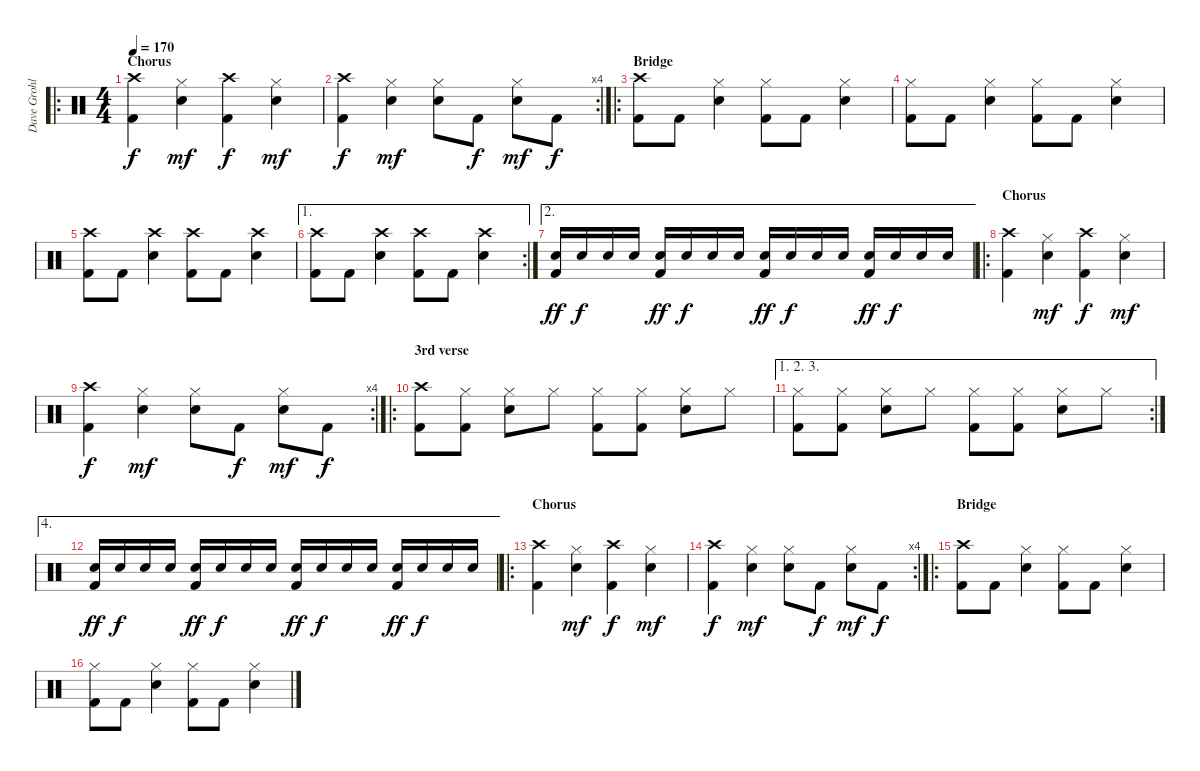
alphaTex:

\track ("Dave Grohl" "Dave Grohl") {instrument percussion}
\staff {score}
\articulation defaults
\ro
\ts (4 4)
\section ("" "Chorus")
\tempo 170
\clef neutral
\ks c
("Crash high (hit)" "Kick (hit) 2").4{dy f volume 13} ("Hi-Hat (closed)" "Electric Snare (hit)").4{dy mf} ("Crash high (hit)" "Kick (hit) 2").4{dy f} ("Hi-Hat (closed)" "Electric Snare (hit)").4{dy mf} |
\rc 4
("Crash high (hit)" "Kick (hit) 2").4{dy f} ("Hi-Hat (closed)" "Electric Snare (hit)").4{dy mf} ("Hi-Hat (closed)" "Electric Snare (hit)").8 "Kick (hit) 2".8{dy f} ("Hi-Hat (closed)" "Electric Snare (hit)").8{dy mf} "Kick (hit) 2".8{dy f} |
\ro
\section ("" "Bridge")
("Crash high (hit)" "Kick (hit) 2").8 "Kick (hit) 2".8 ("Hi-Hat (closed)" "Electric Snare (hit)").4 ("Hi-Hat (closed)" "Kick (hit) 2").8 "Kick (hit) 2".8 ("Hi-Hat (closed)" "Electric Snare (hit)").4 |
("Hi-Hat (closed)" "Kick (hit) 2").8 "Kick (hit) 2".8 ("Hi-Hat (closed)" "Electric Snare (hit)").4 ("Hi-Hat (closed)" "Kick (hit) 2").8 "Kick (hit) 2".8 ("Hi-Hat (closed)" "Electric Snare (hit)").4 |
("Crash high (hit)" "Kick (hit) 2").8 "Kick (hit) 2".8 ("Crash high (hit)" "Electric Snare (hit)").4 ("Crash high (hit)" "Kick (hit) 2").8 "Kick (hit) 2".8 ("Crash high (hit)" "Electric Snare (hit)").4 |
\ae 1
\rc 2
("Crash high (hit)" "Kick (hit) 2").8 "Kick (hit) 2".8 ("Crash high (hit)" "Electric Snare (hit)").4 ("Crash high (hit)" "Kick (hit) 2").8 "Kick (hit) 2".8 ("Crash high (hit)" "Electric Snare (hit)").4 |
\ae 2
("Electric Snare (hit)" "Kick (hit) 2").16{dy ff} "Electric Snare (hit)".16{dy f} "Electric Snare (hit)".16 "Electric Snare (hit)".16 ("Electric Snare (hit)" "Kick (hit) 2").16{dy ff} "Electric Snare (hit)".16{dy f} "Electric Snare (hit)".16 "Electric Snare (hit)".16 ("Electric Snare (hit)" "Kick (hit) 2").16{dy ff} "Electric Snare (hit)".16{dy f} "Electric Snare (hit)".16 "Electric Snare (hit)".16 ("Electric Snare (hit)" "Kick (hit) 2").16{dy ff} "Electric Snare (hit)".16{dy f} "Electric Snare (hit)".16 "Electric Snare (hit)".16 |
\ro
\section ("" "Chorus")
("Crash high (hit)" "Kick (hit) 2").4{volume 13} ("Hi-Hat (closed)" "Electric Snare (hit)").4{dy mf} ("Crash high (hit)" "Kick (hit) 2").4{dy f} ("Hi-Hat (closed)" "Electric Snare (hit)").4{dy mf} |
\rc 4
("Crash high (hit)" "Kick (hit) 2").4{dy f} ("Hi-Hat (closed)" "Electric Snare (hit)").4{dy mf} ("Hi-Hat (closed)" "Electric Snare (hit)").8 "Kick (hit) 2".8{dy f} ("Hi-Hat (closed)" "Electric Snare (hit)").8{dy mf} "Kick (hit) 2".8{dy f} |
\ro
\section ("" "3rd verse")
("Crash high (hit)" "Kick (hit) 2").8 ("Hi-Hat (closed)" "Kick (hit) 2").8 ("Hi-Hat (closed)" "Electric Snare (hit)").8 "Hi-Hat (closed)".8 ("Hi-Hat (closed)" "Kick (hit) 2").8 ("Hi-Hat (closed)" "Kick (hit) 2").8 ("Hi-Hat (closed)" "Electric Snare (hit)").8 "Hi-Hat (closed)".8 |
\ae (1 2 3)
\rc 2
("Hi-Hat (closed)" "Kick (hit) 2").8 ("Hi-Hat (closed)" "Kick (hit) 2").8 ("Hi-Hat (closed)" "Electric Snare (hit)").8 "Hi-Hat (closed)".8 ("Hi-Hat (closed)" "Kick (hit) 2").8 ("Hi-Hat (closed)" "Kick (hit) 2").8 ("Hi-Hat (closed)" "Electric Snare (hit)").8 "Hi-Hat (closed)".8 |
\ae 4
("Electric Snare (hit)" "Kick (hit) 2").16{dy ff} "Electric Snare (hit)".16{dy f} "Electric Snare (hit)".16 "Electric Snare (hit)".16 ("Electric Snare (hit)" "Kick (hit) 2").16{dy ff} "Electric Snare (hit)".16{dy f} "Electric Snare (hit)".16 "Electric Snare (hit)".16 ("Electric Snare (hit)" "Kick (hit) 2").16{dy ff} "Electric Snare (hit)".16{dy f} "Electric Snare (hit)".16 "Electric Snare (hit)".16 ("Electric Snare (hit)" "Kick (hit) 2").16{dy ff} "Electric Snare (hit)".16{dy f} "Electric Snare (hit)".16 "Electric Snare (hit)".16 |
\ro
\section ("" "Chorus")
("Crash high (hit)" "Kick (hit) 2").4{volume 13} ("Hi-Hat (closed)" "Electric Snare (hit)").4{dy mf} ("Crash high (hit)" "Kick (hit) 2").4{dy f} ("Hi-Hat (closed)" "Electric Snare (hit)").4{dy mf} |
\rc 4
("Crash high (hit)" "Kick (hit) 2").4{dy f} ("Hi-Hat (closed)" "Electric Snare (hit)").4{dy mf} ("Hi-Hat (closed)" "Electric Snare (hit)").8 "Kick (hit) 2".8{dy f} ("Hi-Hat (closed)" "Electric Snare (hit)").8{dy mf} "Kick (hit) 2".8{dy f} |
\ro
\section ("" "Bridge")
("Crash high (hit)" "Kick (hit) 2").8 "Kick (hit) 2".8 ("Hi-Hat (closed)" "Electric Snare (hit)").4 ("Hi-Hat (closed)" "Kick (hit) 2").8 "Kick (hit) 2".8 ("Hi-Hat (closed)" "Electric Snare (hit)").4 |
("Hi-Hat (closed)" "Kick (hit) 2").8 "Kick (hit) 2".8 ("Hi-Hat (closed)" "Electric Snare (hit)").4 ("Hi-Hat (closed)" "Kick (hit) 2").8 "Kick (hit) 2".8 ("Hi-Hat (closed)" "Electric Snare (hit)").4
